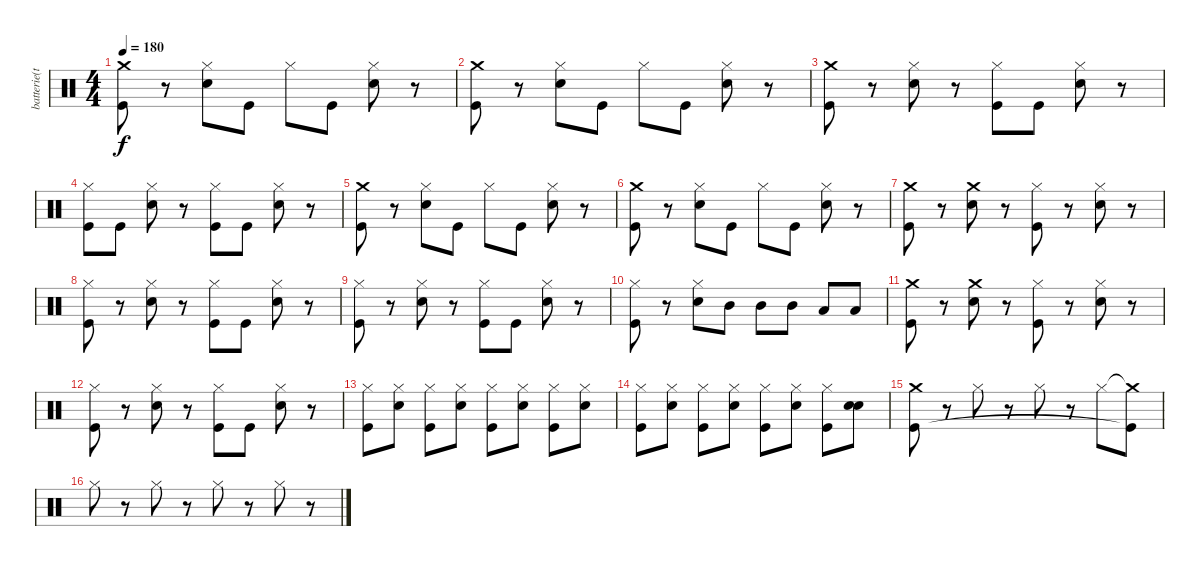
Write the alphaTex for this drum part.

\track ("batterie(topper)" "batterie(t") {instrument percussion}
\staff {score}
\articulation defaults
\ts (4 4)
\tempo 180
\clef neutral
\ks c
("Crash medium (hit)" "Kick (hit)").8{dy f} r.8 ("Hi-Hat (closed)" "Snare (hit) 2").8 "Kick (hit)".8 "Hi-Hat (closed)".8 "Kick (hit)".8 ("Hi-Hat (closed)" "Snare (hit) 2").8 r.8 |
("Crash medium (hit)" "Kick (hit)").8 r.8 ("Hi-Hat (closed)" "Snare (hit) 2").8 "Kick (hit)".8 "Hi-Hat (closed)".8 "Kick (hit)".8 ("Hi-Hat (closed)" "Snare (hit) 2").8 r.8 |
("Crash medium (hit)" "Kick (hit)").8 r.8 ("Hi-Hat (closed)" "Snare (hit) 2").8 r.8 ("Hi-Hat (closed)" "Kick (hit)").8 "Kick (hit)".8 ("Hi-Hat (closed)" "Snare (hit) 2").8 r.8 |
("Hi-Hat (closed)" "Kick (hit)").8 "Kick (hit)".8 ("Hi-Hat (closed)" "Snare (hit) 2").8 r.8 ("Hi-Hat (closed)" "Kick (hit)").8 "Kick (hit)".8 ("Hi-Hat (closed)" "Snare (hit) 2").8 r.8 |
("Crash medium (hit)" "Kick (hit)").8 r.8 ("Hi-Hat (closed)" "Snare (hit) 2").8 "Kick (hit)".8 "Hi-Hat (closed)".8 "Kick (hit)".8 ("Hi-Hat (closed)" "Snare (hit) 2").8 r.8 |
("Crash medium (hit)" "Kick (hit)").8 r.8 ("Hi-Hat (closed)" "Snare (hit) 2").8 "Kick (hit)".8 "Hi-Hat (closed)".8 "Kick (hit)".8 ("Hi-Hat (closed)" "Snare (hit) 2").8 r.8 |
("Crash medium (hit)" "Kick (hit)").8 r.8 ("Crash medium (hit)" "Snare (hit) 2").8 r.8 ("Hi-Hat (closed)" "Kick (hit)").8 r.8 ("Hi-Hat (closed)" "Snare (hit) 2").8 r.8 |
("Hi-Hat (closed)" "Kick (hit)").8 r.8 ("Hi-Hat (closed)" "Snare (hit) 2").8 r.8 ("Hi-Hat (closed)" "Kick (hit)").8 "Kick (hit)".8 ("Hi-Hat (closed)" "Snare (hit) 2").8 r.8 |
("Hi-Hat (closed)" "Kick (hit)").8 r.8 ("Hi-Hat (closed)" "Snare (hit) 2").8 r.8 ("Hi-Hat (closed)" "Kick (hit)").8 "Kick (hit)".8 ("Hi-Hat (closed)" "Snare (hit) 2").8 r.8 |
("Hi-Hat (closed)" "Kick (hit)").8 r.8 ("Hi-Hat (closed)" "Snare (hit) 2").8 "Mid Tom (hit)".8 "Mid Tom (hit)".8 "Mid Tom (hit)".8 "Low Tom (hit)".8 "Low Tom (hit)".8 |
("Crash medium (hit)" "Kick (hit)").8 r.8 ("Crash medium (hit)" "Snare (hit) 2").8 r.8 ("Hi-Hat (closed)" "Kick (hit)").8 r.8 ("Hi-Hat (closed)" "Snare (hit) 2").8 r.8 |
("Hi-Hat (closed)" "Kick (hit)").8 r.8 ("Hi-Hat (closed)" "Snare (hit) 2").8 r.8 ("Hi-Hat (closed)" "Kick (hit)").8 "Kick (hit)".8 ("Hi-Hat (closed)" "Snare (hit) 2").8 r.8 |
("Hi-Hat (closed)" "Kick (hit)").8 ("Hi-Hat (closed)" "Snare (hit) 2").8 ("Hi-Hat (closed)" "Kick (hit)").8 ("Hi-Hat (closed)" "Snare (hit) 2").8 ("Hi-Hat (closed)" "Kick (hit)").8 ("Hi-Hat (closed)" "Snare (hit) 2").8 ("Hi-Hat (closed)" "Kick (hit)").8 ("Hi-Hat (closed)" "Snare (hit) 2").8 |
("Hi-Hat (closed)" "Kick (hit)").8 ("Hi-Hat (closed)" "Snare (hit) 2").8 ("Hi-Hat (closed)" "Kick (hit)").8 ("Hi-Hat (closed)" "Snare (hit) 2").8 ("Hi-Hat (closed)" "Kick (hit)").8 ("Hi-Hat (closed)" "Snare (hit) 2").8 ("Hi-Hat (closed)" "Kick (hit)").8 ("Snare (hit) 2" "Snare (hit) 2").8 |
("Crash medium (hit)" "Kick (hit)").8 r.8 "Hi-Hat (closed)".8 r.8 "Hi-Hat (closed)".8 r.8 "Hi-Hat (closed)".8 ("Crash medium (hit)"{t} "Kick (hit)"{t}).8 |
"Hi-Hat (closed)".8 r.8 "Hi-Hat (closed)".8 r.8 "Hi-Hat (closed)".8 r.8 "Hi-Hat (closed)".8 r.8
